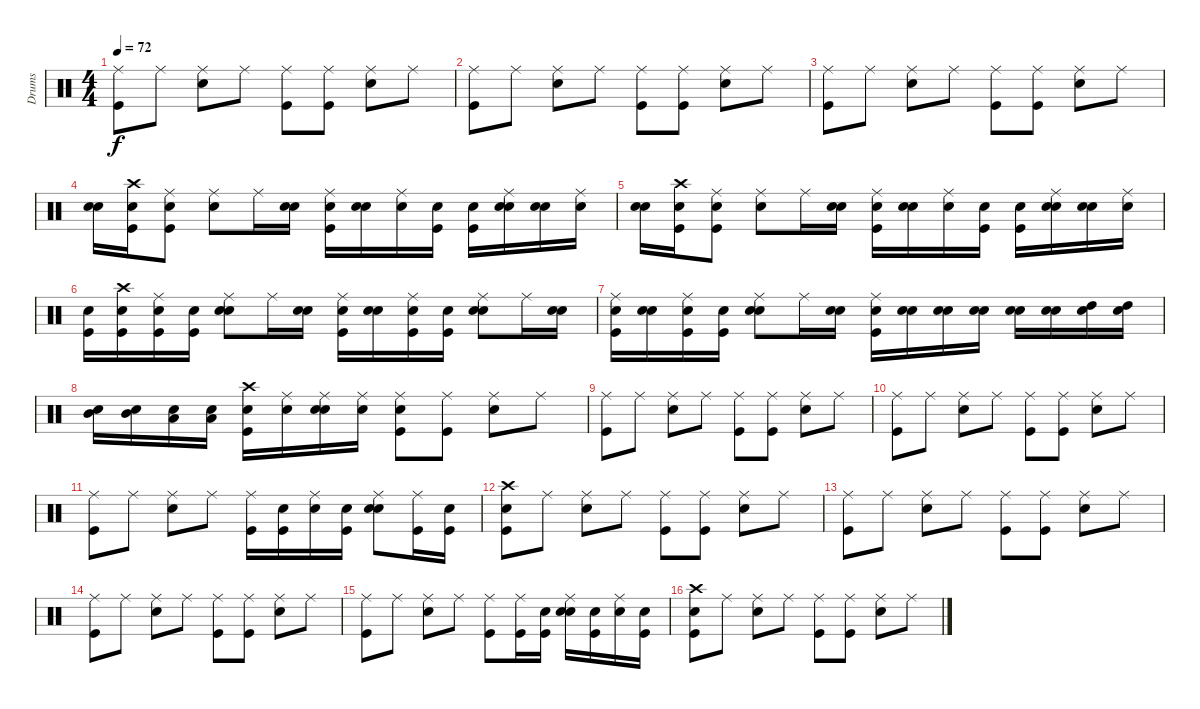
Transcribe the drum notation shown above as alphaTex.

\track ("Drums" "Drums") {instrument percussion}
\staff {score}
\articulation defaults
\ts (4 4)
\tempo 72
\clef neutral
\ks c
("Ride (middle)" "Kick (hit)").8{dy f} "Ride (middle)".8 ("Ride (middle)" "Snare (hit) 2").8 "Ride (middle)".8 ("Ride (middle)" "Kick (hit)").8 ("Ride (middle)" "Kick (hit)").8 ("Ride (middle)" "Snare (hit) 2").8 "Ride (middle)".8 |
("Ride (middle)" "Kick (hit)").8 "Ride (middle)".8 ("Ride (middle)" "Snare (hit) 2").8 "Ride (middle)".8 ("Ride (middle)" "Kick (hit)").8 ("Ride (middle)" "Kick (hit)").8 ("Ride (middle)" "Snare (hit) 2").8 "Ride (middle)".8 |
("Ride (middle)" "Kick (hit)").8 "Ride (middle)".8 ("Ride (middle)" "Snare (hit) 2").8 "Ride (middle)".8 ("Ride (middle)" "Kick (hit)").8 ("Ride (middle)" "Kick (hit)").8 ("Ride (middle)" "Snare (hit) 2").8 "Ride (middle)".8 |
("Snare (hit)" "Snare (hit) 2").16 ("Snare (hit)" "Crash high (hit)" "Kick (hit)").16 ("Snare (hit)" "Ride (middle)" "Kick (hit)").8 ("Ride (middle)" "Snare (hit) 2").8 "Ride (middle)".16 ("Snare (hit)" "Snare (hit) 2").16 ("Snare (hit)" "Ride (middle)" "Kick (hit)").16 ("Snare (hit)" "Snare (hit) 2").16 ("Snare (hit)" "Ride (middle)").16 ("Snare (hit)" "Kick (hit)").16 ("Snare (hit)" "Kick (hit)").16 ("Snare (hit)" "Ride (middle)" "Snare (hit) 2").16 ("Snare (hit)" "Snare (hit) 2").16 ("Snare (hit)" "Ride (middle)").16 |
("Snare (hit)" "Snare (hit) 2").16 ("Snare (hit)" "Crash high (hit)" "Kick (hit)").16 ("Snare (hit)" "Ride (middle)" "Kick (hit)").8 ("Ride (middle)" "Snare (hit) 2").8 "Ride (middle)".16 ("Snare (hit)" "Snare (hit) 2").16 ("Snare (hit)" "Ride (middle)" "Kick (hit)").16 ("Snare (hit)" "Snare (hit) 2").16 ("Snare (hit)" "Ride (middle)").16 ("Snare (hit)" "Kick (hit)").16 ("Snare (hit)" "Kick (hit)").16 ("Snare (hit)" "Ride (middle)" "Snare (hit) 2").16 ("Snare (hit)" "Snare (hit) 2").16 ("Snare (hit)" "Ride (middle)").16 |
("Snare (hit)" "Kick (hit)").16 ("Snare (hit)" "Crash high (hit)" "Kick (hit)").16 ("Snare (hit)" "Ride (middle)" "Kick (hit)").16 ("Snare (hit)" "Kick (hit)").16 ("Snare (hit)" "Ride (middle)" "Snare (hit) 2").8 "Ride (middle)".16 ("Snare (hit)" "Snare (hit) 2").16 ("Snare (hit)" "Ride (middle)" "Kick (hit)").16 ("Snare (hit)" "Snare (hit) 2").16 ("Snare (hit)" "Ride (middle)" "Kick (hit)").16 ("Snare (hit)" "Kick (hit)").16 ("Snare (hit)" "Ride (middle)" "Snare (hit) 2").8 "Ride (middle)".16 ("Snare (hit)" "Snare (hit) 2").16 |
("Snare (hit)" "Ride (middle)" "Kick (hit)").16 ("Snare (hit)" "Snare (hit) 2").16 ("Snare (hit)" "Ride (middle)" "Kick (hit)").16 ("Snare (hit)" "Kick (hit)").16 ("Snare (hit)" "Ride (middle)" "Snare (hit) 2").8 "Ride (middle)".16 ("Snare (hit)" "Snare (hit) 2").16 ("Snare (hit)" "Ride (middle)" "Kick (hit)").16 ("Snare (hit)" "Snare (hit) 2").16 ("Snare (hit)" "Snare (hit) 2").16 ("Snare (hit)" "Snare (hit) 2").16 ("Snare (hit)" "Snare (hit) 2").16 ("Snare (hit)" "Snare (hit) 2").16 ("Snare (hit)" "High Tom (hit)").16 ("Snare (hit)" "High Tom (hit)").16 |
("Snare (hit)" "Mid Tom (hit)").16 ("Snare (hit)" "Mid Tom (hit)").16 ("Snare (hit)" "Low Tom (hit)").16 ("Snare (hit)" "Low Tom (hit)").16 ("Snare (hit)" "Crash high (hit)" "Kick (hit)").16 ("Snare (hit)" "Ride (middle)").16 ("Snare (hit)" "Ride (middle)" "Snare (hit) 2").16 ("Snare (hit)" "Ride (middle)").16 ("Snare (hit)" "Ride (middle)" "Kick (hit)").8 ("Ride (middle)" "Kick (hit)").8 ("Ride (middle)" "Snare (hit) 2").8 "Ride (middle)".8 |
("Ride (middle)" "Kick (hit)").8 "Ride (middle)".8 ("Ride (middle)" "Snare (hit) 2").8 "Ride (middle)".8 ("Ride (middle)" "Kick (hit)").8 ("Ride (middle)" "Kick (hit)").8 ("Ride (middle)" "Snare (hit) 2").8 "Ride (middle)".8 |
("Ride (middle)" "Kick (hit)").8 "Ride (middle)".8 ("Ride (middle)" "Snare (hit) 2").8 "Ride (middle)".8 ("Ride (middle)" "Kick (hit)").8 ("Ride (middle)" "Kick (hit)").8 ("Ride (middle)" "Snare (hit) 2").8 "Ride (middle)".8 |
("Ride (middle)" "Kick (hit)").8 "Ride (middle)".8 ("Ride (middle)" "Snare (hit) 2").8 "Ride (middle)".8 ("Ride (middle)" "Kick (hit)").16 ("Snare (hit)" "Kick (hit)").16 ("Snare (hit)" "Ride (middle)").16 ("Snare (hit)" "Kick (hit)").16 ("Snare (hit)" "Ride (middle)" "Snare (hit) 2").8 ("Ride (middle)" "Kick (hit)").16 ("Snare (hit)" "Kick (hit)").16 |
("Snare (hit)" "Crash high (hit)" "Kick (hit)").8 "Ride (middle)".8 ("Ride (middle)" "Snare (hit) 2").8 "Ride (middle)".8 ("Ride (middle)" "Kick (hit)").8 ("Ride (middle)" "Kick (hit)").8 ("Ride (middle)" "Snare (hit) 2").8 "Ride (middle)".8 |
("Ride (middle)" "Kick (hit)").8 "Ride (middle)".8 ("Ride (middle)" "Snare (hit) 2").8 "Ride (middle)".8 ("Ride (middle)" "Kick (hit)").8 ("Ride (middle)" "Kick (hit)").8 ("Ride (middle)" "Snare (hit) 2").8 "Ride (middle)".8 |
("Ride (middle)" "Kick (hit)").8 "Ride (middle)".8 ("Ride (middle)" "Snare (hit) 2").8 "Ride (middle)".8 ("Ride (middle)" "Kick (hit)").8 ("Ride (middle)" "Kick (hit)").8 ("Ride (middle)" "Snare (hit) 2").8 "Ride (middle)".8 |
("Ride (middle)" "Kick (hit)").8 "Ride (middle)".8 ("Ride (middle)" "Snare (hit) 2").8 "Ride (middle)".8 ("Ride (middle)" "Kick (hit)").8 ("Ride (middle)" "Kick (hit)").16 ("Snare (hit)" "Kick (hit)").16 ("Snare (hit)" "Ride (middle)" "Snare (hit) 2").16 ("Snare (hit)" "Kick (hit)").16 ("Snare (hit)" "Ride (middle)").16 ("Snare (hit)" "Kick (hit)").16 |
("Snare (hit)" "Crash high (hit)" "Kick (hit)").8 "Ride (middle)".8 ("Ride (middle)" "Snare (hit) 2").8 "Ride (middle)".8 ("Ride (middle)" "Kick (hit)").8 ("Ride (middle)" "Kick (hit)").8 ("Ride (middle)" "Snare (hit) 2").8 "Ride (middle)".8
